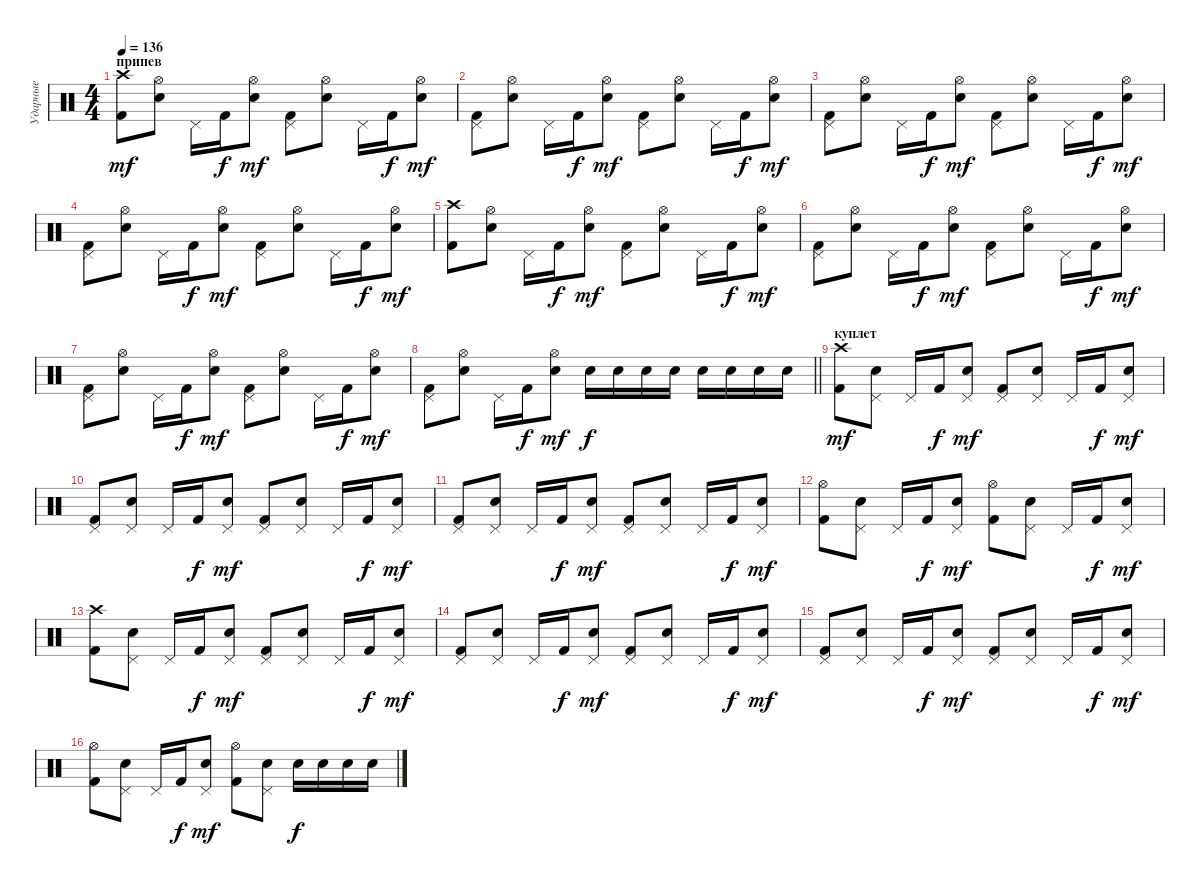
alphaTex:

\track ("Ударные" "Ударные") {instrument percussion}
\staff {score}
\articulation defaults
\ts (4 4)
\section ("" "припев")
\tempo 136
\clef neutral
\ks c
("Kick (hit) 2" "Crash high (hit)").8{dy mf} ("Electric Snare (hit)" "Hi-Hat (open)").8 "Pedal Hi-Hat (hit)".16 "Kick (hit) 2".16{dy f} ("Electric Snare (hit)" "Hi-Hat (open)").8{dy mf} ("Kick (hit) 2" "Pedal Hi-Hat (hit)").8 ("Electric Snare (hit)" "Hi-Hat (open)").8 "Pedal Hi-Hat (hit)".16 "Kick (hit) 2".16{dy f} ("Electric Snare (hit)" "Hi-Hat (open)").8{dy mf} |
("Kick (hit) 2" "Pedal Hi-Hat (hit)").8 ("Electric Snare (hit)" "Hi-Hat (open)").8 "Pedal Hi-Hat (hit)".16 "Kick (hit) 2".16{dy f} ("Electric Snare (hit)" "Hi-Hat (open)").8{dy mf} ("Kick (hit) 2" "Pedal Hi-Hat (hit)").8 ("Electric Snare (hit)" "Hi-Hat (open)").8 "Pedal Hi-Hat (hit)".16 "Kick (hit) 2".16{dy f} ("Electric Snare (hit)" "Hi-Hat (open)").8{dy mf} |
("Kick (hit) 2" "Pedal Hi-Hat (hit)").8 ("Electric Snare (hit)" "Hi-Hat (open)").8 "Pedal Hi-Hat (hit)".16 "Kick (hit) 2".16{dy f} ("Electric Snare (hit)" "Hi-Hat (open)").8{dy mf} ("Kick (hit) 2" "Pedal Hi-Hat (hit)").8 ("Electric Snare (hit)" "Hi-Hat (open)").8 "Pedal Hi-Hat (hit)".16 "Kick (hit) 2".16{dy f} ("Electric Snare (hit)" "Hi-Hat (open)").8{dy mf} |
("Kick (hit) 2" "Pedal Hi-Hat (hit)").8 ("Electric Snare (hit)" "Hi-Hat (open)").8 "Pedal Hi-Hat (hit)".16 "Kick (hit) 2".16{dy f} ("Electric Snare (hit)" "Hi-Hat (open)").8{dy mf} ("Kick (hit) 2" "Pedal Hi-Hat (hit)").8 ("Electric Snare (hit)" "Hi-Hat (open)").8 "Pedal Hi-Hat (hit)".16 "Kick (hit) 2".16{dy f} ("Electric Snare (hit)" "Hi-Hat (open)").8{dy mf} |
("Kick (hit) 2" "Crash high (hit)").8 ("Electric Snare (hit)" "Hi-Hat (open)").8 "Pedal Hi-Hat (hit)".16 "Kick (hit) 2".16{dy f} ("Electric Snare (hit)" "Hi-Hat (open)").8{dy mf} ("Kick (hit) 2" "Pedal Hi-Hat (hit)").8 ("Electric Snare (hit)" "Hi-Hat (open)").8 "Pedal Hi-Hat (hit)".16 "Kick (hit) 2".16{dy f} ("Electric Snare (hit)" "Hi-Hat (open)").8{dy mf} |
("Kick (hit) 2" "Pedal Hi-Hat (hit)").8 ("Electric Snare (hit)" "Hi-Hat (open)").8 "Pedal Hi-Hat (hit)".16 "Kick (hit) 2".16{dy f} ("Electric Snare (hit)" "Hi-Hat (open)").8{dy mf} ("Kick (hit) 2" "Pedal Hi-Hat (hit)").8 ("Electric Snare (hit)" "Hi-Hat (open)").8 "Pedal Hi-Hat (hit)".16 "Kick (hit) 2".16{dy f} ("Electric Snare (hit)" "Hi-Hat (open)").8{dy mf} |
("Kick (hit) 2" "Pedal Hi-Hat (hit)").8 ("Electric Snare (hit)" "Hi-Hat (open)").8 "Pedal Hi-Hat (hit)".16 "Kick (hit) 2".16{dy f} ("Electric Snare (hit)" "Hi-Hat (open)").8{dy mf} ("Kick (hit) 2" "Pedal Hi-Hat (hit)").8 ("Electric Snare (hit)" "Hi-Hat (open)").8 "Pedal Hi-Hat (hit)".16 "Kick (hit) 2".16{dy f} ("Electric Snare (hit)" "Hi-Hat (open)").8{dy mf} |
\barLineRight lightlight
("Kick (hit) 2" "Pedal Hi-Hat (hit)").8 ("Electric Snare (hit)" "Hi-Hat (open)").8 "Pedal Hi-Hat (hit)".16 "Kick (hit) 2".16{dy f} ("Electric Snare (hit)" "Hi-Hat (open)").8{dy mf} "Electric Snare (hit)".16{dy f} "Electric Snare (hit)".16 "Electric Snare (hit)".16 "Electric Snare (hit)".16 "Electric Snare (hit)".16 "Electric Snare (hit)".16 "Electric Snare (hit)".16 "Electric Snare (hit)".16 |
\section ("" "куплет")
("Kick (hit) 2" "Crash high (hit)").8{dy mf} ("Electric Snare (hit)" "Pedal Hi-Hat (hit)").8 "Pedal Hi-Hat (hit)".16 "Kick (hit) 2".16{dy f} ("Electric Snare (hit)" "Pedal Hi-Hat (hit)").8{dy mf} ("Kick (hit) 2" "Pedal Hi-Hat (hit)").8 ("Electric Snare (hit)" "Pedal Hi-Hat (hit)").8 "Pedal Hi-Hat (hit)".16 "Kick (hit) 2".16{dy f} ("Electric Snare (hit)" "Pedal Hi-Hat (hit)").8{dy mf} |
("Kick (hit) 2" "Pedal Hi-Hat (hit)").8 ("Electric Snare (hit)" "Pedal Hi-Hat (hit)").8 "Pedal Hi-Hat (hit)".16 "Kick (hit) 2".16{dy f} ("Electric Snare (hit)" "Pedal Hi-Hat (hit)").8{dy mf} ("Kick (hit) 2" "Pedal Hi-Hat (hit)").8 ("Electric Snare (hit)" "Pedal Hi-Hat (hit)").8 "Pedal Hi-Hat (hit)".16 "Kick (hit) 2".16{dy f} ("Electric Snare (hit)" "Pedal Hi-Hat (hit)").8{dy mf} |
("Kick (hit) 2" "Pedal Hi-Hat (hit)").8 ("Electric Snare (hit)" "Pedal Hi-Hat (hit)").8 "Pedal Hi-Hat (hit)".16 "Kick (hit) 2".16{dy f} ("Electric Snare (hit)" "Pedal Hi-Hat (hit)").8{dy mf} ("Kick (hit) 2" "Pedal Hi-Hat (hit)").8 ("Electric Snare (hit)" "Pedal Hi-Hat (hit)").8 "Pedal Hi-Hat (hit)".16 "Kick (hit) 2".16{dy f} ("Electric Snare (hit)" "Pedal Hi-Hat (hit)").8{dy mf} |
("Kick (hit) 2" "Hi-Hat (open)").8 ("Electric Snare (hit)" "Pedal Hi-Hat (hit)").8 "Pedal Hi-Hat (hit)".16 "Kick (hit) 2".16{dy f} ("Electric Snare (hit)" "Pedal Hi-Hat (hit)").8{dy mf} ("Kick (hit) 2" "Hi-Hat (open)").8 ("Electric Snare (hit)" "Pedal Hi-Hat (hit)").8 "Pedal Hi-Hat (hit)".16 "Kick (hit) 2".16{dy f} ("Electric Snare (hit)" "Pedal Hi-Hat (hit)").8{dy mf} |
("Kick (hit) 2" "Crash high (hit)").8 ("Electric Snare (hit)" "Pedal Hi-Hat (hit)").8 "Pedal Hi-Hat (hit)".16 "Kick (hit) 2".16{dy f} ("Electric Snare (hit)" "Pedal Hi-Hat (hit)").8{dy mf} ("Kick (hit) 2" "Pedal Hi-Hat (hit)").8 ("Electric Snare (hit)" "Pedal Hi-Hat (hit)").8 "Pedal Hi-Hat (hit)".16 "Kick (hit) 2".16{dy f} ("Electric Snare (hit)" "Pedal Hi-Hat (hit)").8{dy mf} |
("Kick (hit) 2" "Pedal Hi-Hat (hit)").8 ("Electric Snare (hit)" "Pedal Hi-Hat (hit)").8 "Pedal Hi-Hat (hit)".16 "Kick (hit) 2".16{dy f} ("Electric Snare (hit)" "Pedal Hi-Hat (hit)").8{dy mf} ("Kick (hit) 2" "Pedal Hi-Hat (hit)").8 ("Electric Snare (hit)" "Pedal Hi-Hat (hit)").8 "Pedal Hi-Hat (hit)".16 "Kick (hit) 2".16{dy f} ("Electric Snare (hit)" "Pedal Hi-Hat (hit)").8{dy mf} |
("Kick (hit) 2" "Pedal Hi-Hat (hit)").8 ("Electric Snare (hit)" "Pedal Hi-Hat (hit)").8 "Pedal Hi-Hat (hit)".16 "Kick (hit) 2".16{dy f} ("Electric Snare (hit)" "Pedal Hi-Hat (hit)").8{dy mf} ("Kick (hit) 2" "Pedal Hi-Hat (hit)").8 ("Electric Snare (hit)" "Pedal Hi-Hat (hit)").8 "Pedal Hi-Hat (hit)".16 "Kick (hit) 2".16{dy f} ("Electric Snare (hit)" "Pedal Hi-Hat (hit)").8{dy mf} |
("Kick (hit) 2" "Hi-Hat (open)").8 ("Electric Snare (hit)" "Pedal Hi-Hat (hit)").8 "Pedal Hi-Hat (hit)".16 "Kick (hit) 2".16{dy f} ("Electric Snare (hit)" "Pedal Hi-Hat (hit)").8{dy mf} ("Kick (hit) 2" "Hi-Hat (open)").8 ("Electric Snare (hit)" "Pedal Hi-Hat (hit)").8 "Electric Snare (hit)".16{dy f} "Electric Snare (hit)".16 "Electric Snare (hit)".16 "Electric Snare (hit)".16
